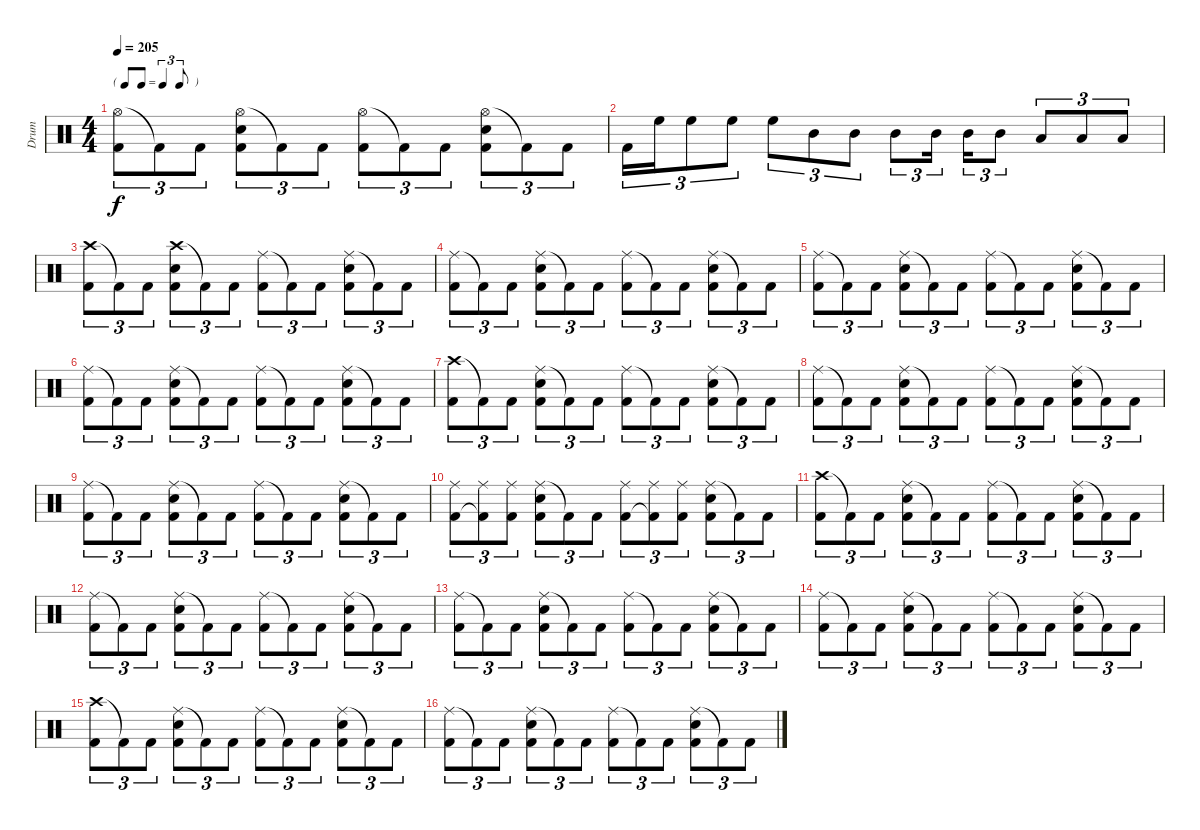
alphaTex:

\track ("Drum" "Drum") {instrument percussion}
\staff {score}
\articulation defaults
\ts (4 4)
\tf triplet8th
\tempo 205
\clef neutral
\ks c
("Hi-Hat (open)" "Kick (hit) 2").8{tu (3 2) dy f} "Kick (hit) 2"{t}.8{tu (3 2)} "Kick (hit) 2".8{tu (3 2)} ("Hi-Hat (open)" "Snare (hit) 2" "Kick (hit) 2").8{tu (3 2)} "Kick (hit) 2"{t}.8{tu (3 2)} "Kick (hit) 2".8{tu (3 2)} ("Hi-Hat (open)" "Kick (hit) 2").8{tu (3 2)} "Kick (hit) 2"{t}.8{tu (3 2)} "Kick (hit) 2".8{tu (3 2)} ("Hi-Hat (open)" "Snare (hit) 2" "Kick (hit) 2").8{tu (3 2)} "Kick (hit) 2"{t}.8{tu (3 2)} "Kick (hit) 2".8{tu (3 2)} |
"Kick (hit) 2".16{tu (3 2)} "High Floor Tom (hit)".16{tu (3 2)} "High Floor Tom (hit)".8{tu (3 2)} "High Floor Tom (hit)".8{tu (3 2)} "High Floor Tom (hit)".8{tu (3 2)} "Mid Tom (hit)".8{tu (3 2)} "Mid Tom (hit)".8{tu (3 2)} "Mid Tom (hit)".8{tu (3 2)} "Mid Tom (hit)".16{tu (3 2)} "Mid Tom (hit)".16{tu (3 2)} "Mid Tom (hit)".8{tu (3 2)} "Low Tom (hit)".8{tu (3 2)} "Low Tom (hit)".8{tu (3 2)} "Low Tom (hit)".8{tu (3 2)} |
("Crash high (hit)" "Kick (hit) 2").8{tu (3 2)} "Kick (hit) 2"{t}.8{tu (3 2)} "Kick (hit) 2".8{tu (3 2)} ("Crash high (hit)" "Snare (hit) 2" "Kick (hit) 2").8{tu (3 2)} "Kick (hit) 2"{t}.8{tu (3 2)} "Kick (hit) 2".8{tu (3 2)} ("Ride (middle)" "Kick (hit) 2").8{tu (3 2)} "Kick (hit) 2"{t}.8{tu (3 2)} "Kick (hit) 2".8{tu (3 2)} ("Ride (middle)" "Snare (hit) 2" "Kick (hit) 2").8{tu (3 2)} "Kick (hit) 2"{t}.8{tu (3 2)} "Kick (hit) 2".8{tu (3 2)} |
("Ride (middle)" "Kick (hit) 2").8{tu (3 2)} "Kick (hit) 2"{t}.8{tu (3 2)} "Kick (hit) 2".8{tu (3 2)} ("Ride (middle)" "Snare (hit) 2" "Kick (hit) 2").8{tu (3 2)} "Kick (hit) 2"{t}.8{tu (3 2)} "Kick (hit) 2".8{tu (3 2)} ("Ride (middle)" "Kick (hit) 2").8{tu (3 2)} "Kick (hit) 2"{t}.8{tu (3 2)} "Kick (hit) 2".8{tu (3 2)} ("Ride (middle)" "Snare (hit) 2" "Kick (hit) 2").8{tu (3 2)} "Kick (hit) 2"{t}.8{tu (3 2)} "Kick (hit) 2".8{tu (3 2)} |
("Ride (middle)" "Kick (hit) 2").8{tu (3 2)} "Kick (hit) 2"{t}.8{tu (3 2)} "Kick (hit) 2".8{tu (3 2)} ("Ride (middle)" "Snare (hit) 2" "Kick (hit) 2").8{tu (3 2)} "Kick (hit) 2"{t}.8{tu (3 2)} "Kick (hit) 2".8{tu (3 2)} ("Ride (middle)" "Kick (hit) 2").8{tu (3 2)} "Kick (hit) 2"{t}.8{tu (3 2)} "Kick (hit) 2".8{tu (3 2)} ("Ride (middle)" "Snare (hit) 2" "Kick (hit) 2").8{tu (3 2)} "Kick (hit) 2"{t}.8{tu (3 2)} "Kick (hit) 2".8{tu (3 2)} |
("Ride (middle)" "Kick (hit) 2").8{tu (3 2)} "Kick (hit) 2"{t}.8{tu (3 2)} "Kick (hit) 2".8{tu (3 2)} ("Ride (middle)" "Snare (hit) 2" "Kick (hit) 2").8{tu (3 2)} "Kick (hit) 2"{t}.8{tu (3 2)} "Kick (hit) 2".8{tu (3 2)} ("Ride (middle)" "Kick (hit) 2").8{tu (3 2)} "Kick (hit) 2"{t}.8{tu (3 2)} "Kick (hit) 2".8{tu (3 2)} ("Ride (middle)" "Snare (hit) 2" "Kick (hit) 2").8{tu (3 2)} "Kick (hit) 2"{t}.8{tu (3 2)} "Kick (hit) 2".8{tu (3 2)} |
("Crash high (hit)" "Kick (hit) 2").8{tu (3 2)} "Kick (hit) 2"{t}.8{tu (3 2)} "Kick (hit) 2".8{tu (3 2)} ("Ride (middle)" "Snare (hit) 2" "Kick (hit) 2").8{tu (3 2)} "Kick (hit) 2"{t}.8{tu (3 2)} "Kick (hit) 2".8{tu (3 2)} ("Ride (middle)" "Kick (hit) 2").8{tu (3 2)} "Kick (hit) 2"{t}.8{tu (3 2)} "Kick (hit) 2".8{tu (3 2)} ("Ride (middle)" "Snare (hit) 2" "Kick (hit) 2").8{tu (3 2)} "Kick (hit) 2"{t}.8{tu (3 2)} "Kick (hit) 2".8{tu (3 2)} |
("Ride (middle)" "Kick (hit) 2").8{tu (3 2)} "Kick (hit) 2"{t}.8{tu (3 2)} "Kick (hit) 2".8{tu (3 2)} ("Ride (middle)" "Snare (hit) 2" "Kick (hit) 2").8{tu (3 2)} "Kick (hit) 2"{t}.8{tu (3 2)} "Kick (hit) 2".8{tu (3 2)} ("Ride (middle)" "Kick (hit) 2").8{tu (3 2)} "Kick (hit) 2"{t}.8{tu (3 2)} "Kick (hit) 2".8{tu (3 2)} ("Ride (middle)" "Snare (hit) 2" "Kick (hit) 2").8{tu (3 2)} "Kick (hit) 2"{t}.8{tu (3 2)} "Kick (hit) 2".8{tu (3 2)} |
("Ride (middle)" "Kick (hit) 2").8{tu (3 2)} "Kick (hit) 2"{t}.8{tu (3 2)} "Kick (hit) 2".8{tu (3 2)} ("Ride (middle)" "Snare (hit) 2" "Kick (hit) 2").8{tu (3 2)} "Kick (hit) 2"{t}.8{tu (3 2)} "Kick (hit) 2".8{tu (3 2)} ("Ride (middle)" "Kick (hit) 2").8{tu (3 2)} "Kick (hit) 2"{t}.8{tu (3 2)} "Kick (hit) 2".8{tu (3 2)} ("Ride (middle)" "Snare (hit) 2" "Kick (hit) 2").8{tu (3 2)} "Kick (hit) 2"{t}.8{tu (3 2)} "Kick (hit) 2".8{tu (3 2)} |
("Ride (middle)" "Kick (hit) 2").8{tu (3 2)} ("Ride (middle)" "Kick (hit) 2"{t}).8{tu (3 2)} ("Ride (middle)" "Kick (hit) 2").8{tu (3 2)} ("Ride (middle)" "Snare (hit) 2" "Kick (hit) 2").8{tu (3 2)} "Kick (hit) 2"{t}.8{tu (3 2)} "Kick (hit) 2".8{tu (3 2)} ("Ride (middle)" "Kick (hit) 2").8{tu (3 2)} ("Ride (middle)" "Kick (hit) 2"{t}).8{tu (3 2)} ("Ride (middle)" "Kick (hit) 2").8{tu (3 2)} ("Ride (middle)" "Snare (hit) 2" "Kick (hit) 2").8{tu (3 2)} "Kick (hit) 2"{t}.8{tu (3 2)} "Kick (hit) 2".8{tu (3 2)} |
("Crash high (hit)" "Kick (hit) 2").8{tu (3 2)} "Kick (hit) 2"{t}.8{tu (3 2)} "Kick (hit) 2".8{tu (3 2)} ("Ride (middle)" "Snare (hit) 2" "Kick (hit) 2").8{tu (3 2)} "Kick (hit) 2"{t}.8{tu (3 2)} "Kick (hit) 2".8{tu (3 2)} ("Ride (middle)" "Kick (hit) 2").8{tu (3 2)} "Kick (hit) 2"{t}.8{tu (3 2)} "Kick (hit) 2".8{tu (3 2)} ("Ride (middle)" "Snare (hit) 2" "Kick (hit) 2").8{tu (3 2)} "Kick (hit) 2"{t}.8{tu (3 2)} "Kick (hit) 2".8{tu (3 2)} |
("Ride (middle)" "Kick (hit) 2").8{tu (3 2)} "Kick (hit) 2"{t}.8{tu (3 2)} "Kick (hit) 2".8{tu (3 2)} ("Ride (middle)" "Snare (hit) 2" "Kick (hit) 2").8{tu (3 2)} "Kick (hit) 2"{t}.8{tu (3 2)} "Kick (hit) 2".8{tu (3 2)} ("Ride (middle)" "Kick (hit) 2").8{tu (3 2)} "Kick (hit) 2"{t}.8{tu (3 2)} "Kick (hit) 2".8{tu (3 2)} ("Ride (middle)" "Snare (hit) 2" "Kick (hit) 2").8{tu (3 2)} "Kick (hit) 2"{t}.8{tu (3 2)} "Kick (hit) 2".8{tu (3 2)} |
("Ride (middle)" "Kick (hit) 2").8{tu (3 2)} "Kick (hit) 2"{t}.8{tu (3 2)} "Kick (hit) 2".8{tu (3 2)} ("Ride (middle)" "Snare (hit) 2" "Kick (hit) 2").8{tu (3 2)} "Kick (hit) 2"{t}.8{tu (3 2)} "Kick (hit) 2".8{tu (3 2)} ("Ride (middle)" "Kick (hit) 2").8{tu (3 2)} "Kick (hit) 2"{t}.8{tu (3 2)} "Kick (hit) 2".8{tu (3 2)} ("Ride (middle)" "Snare (hit) 2" "Kick (hit) 2").8{tu (3 2)} "Kick (hit) 2"{t}.8{tu (3 2)} "Kick (hit) 2".8{tu (3 2)} |
("Ride (middle)" "Kick (hit) 2").8{tu (3 2)} "Kick (hit) 2"{t}.8{tu (3 2)} "Kick (hit) 2".8{tu (3 2)} ("Ride (middle)" "Snare (hit) 2" "Kick (hit) 2").8{tu (3 2)} "Kick (hit) 2"{t}.8{tu (3 2)} "Kick (hit) 2".8{tu (3 2)} ("Ride (middle)" "Kick (hit) 2").8{tu (3 2)} "Kick (hit) 2"{t}.8{tu (3 2)} "Kick (hit) 2".8{tu (3 2)} ("Ride (middle)" "Snare (hit) 2" "Kick (hit) 2").8{tu (3 2)} "Kick (hit) 2"{t}.8{tu (3 2)} "Kick (hit) 2".8{tu (3 2)} |
("Crash high (hit)" "Kick (hit) 2").8{tu (3 2)} "Kick (hit) 2"{t}.8{tu (3 2)} "Kick (hit) 2".8{tu (3 2)} ("Ride (middle)" "Snare (hit) 2" "Kick (hit) 2").8{tu (3 2)} "Kick (hit) 2"{t}.8{tu (3 2)} "Kick (hit) 2".8{tu (3 2)} ("Ride (middle)" "Kick (hit) 2").8{tu (3 2)} "Kick (hit) 2"{t}.8{tu (3 2)} "Kick (hit) 2".8{tu (3 2)} ("Ride (middle)" "Snare (hit) 2" "Kick (hit) 2").8{tu (3 2)} "Kick (hit) 2"{t}.8{tu (3 2)} "Kick (hit) 2".8{tu (3 2)} |
("Ride (middle)" "Kick (hit) 2").8{tu (3 2)} "Kick (hit) 2"{t}.8{tu (3 2)} "Kick (hit) 2".8{tu (3 2)} ("Ride (middle)" "Snare (hit) 2" "Kick (hit) 2").8{tu (3 2)} "Kick (hit) 2"{t}.8{tu (3 2)} "Kick (hit) 2".8{tu (3 2)} ("Ride (middle)" "Kick (hit) 2").8{tu (3 2)} "Kick (hit) 2"{t}.8{tu (3 2)} "Kick (hit) 2".8{tu (3 2)} ("Ride (middle)" "Snare (hit) 2" "Kick (hit) 2").8{tu (3 2)} "Kick (hit) 2"{t}.8{tu (3 2)} "Kick (hit) 2".8{tu (3 2)}
